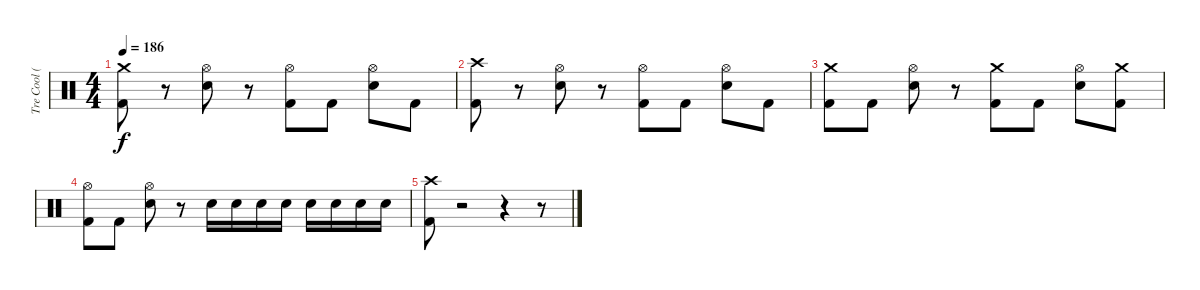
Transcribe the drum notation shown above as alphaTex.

\track ("Tre Cool (Drums)" "Tre Cool (") {instrument percussion}
\staff {score}
\articulation defaults
\ts (4 4)
\tempo 186
\clef neutral
\ks c
("Kick (hit) 2" "Crash medium (hit)").8{dy f} r.8 ("Snare (hit) 2" "Hi-Hat (open)").8 r.8 ("Kick (hit) 2" "Hi-Hat (open)").8 "Kick (hit) 2".8 ("Snare (hit) 2" "Hi-Hat (open)").8 "Kick (hit) 2".8 |
("Kick (hit) 2" "Crash high (hit)").8 r.8 ("Snare (hit) 2" "Hi-Hat (open)").8 r.8 ("Kick (hit) 2" "Hi-Hat (open)").8 "Kick (hit) 2".8 ("Snare (hit) 2" "Hi-Hat (open)").8 "Kick (hit) 2".8 |
("Crash medium (hit)" "Kick (hit) 2").8 "Kick (hit) 2".8 ("Hi-Hat (open)" "Snare (hit) 2").8 r.8 ("Crash medium (hit)" "Kick (hit) 2").8 "Kick (hit) 2".8 ("Hi-Hat (open)" "Snare (hit) 2").8 ("Kick (hit) 2" "Crash medium (hit)").8 |
("Hi-Hat (open)" "Kick (hit) 2").8 "Kick (hit) 2".8 ("Hi-Hat (open)" "Snare (hit) 2").8 r.8 "Snare (hit) 2".16 "Snare (hit) 2".16 "Snare (hit) 2".16 "Snare (hit) 2".16 "Snare (hit) 2".16 "Snare (hit) 2".16 "Snare (hit) 2".16 "Snare (hit) 2".16 |
("Crash high (hit)" "Kick (hit) 2").8 r.2 r.4 r.8
